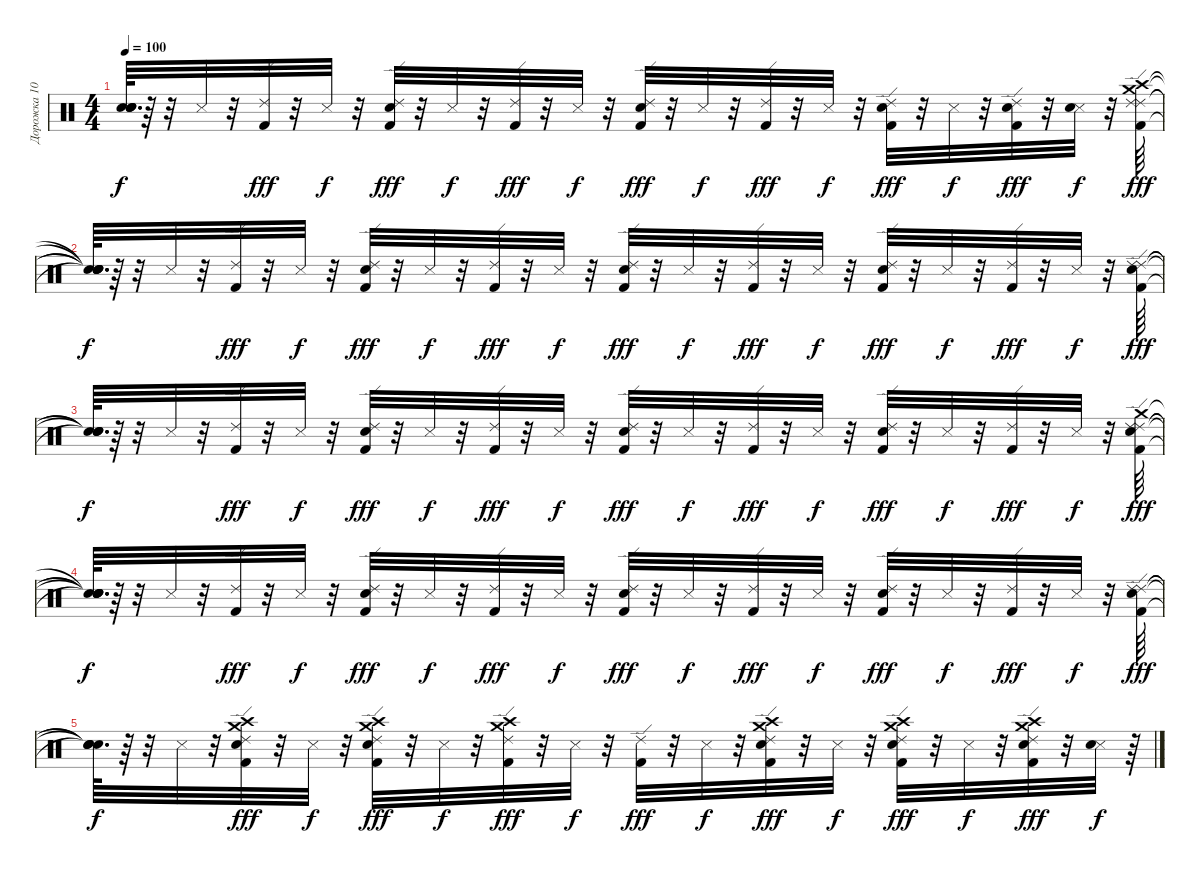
\track ("Дорожка 10" "Дорожка 10") {instrument percussion}
\staff {score}
\articulation defaults
\ts (4 4)
\tempo 100
\clef neutral
\ks c
("Snare (hit)"{t} "Snare (hit)"{t} "Snare (hit)"{t} "Snare (hit)"{t}).64{d dy f} r.64 r.32 "Metronome (hit)".32 r.32 ("Kick (hit) 2" "Ride (edge) 2").32{dy fff} r.32 "Metronome (hit)".32{dy f} r.32 ("Kick (hit) 2" "Snare (hit) 2" "Ride (edge) 2").32{dy fff} r.32 "Metronome (hit)".32{dy f} r.32 ("Kick (hit) 2" "Ride (edge) 2").32{dy fff} r.32 "Metronome (hit)".32{dy f} r.32 ("Kick (hit) 2" "Snare (hit) 2" "Ride (edge) 2").32{dy fff} r.32 "Metronome (hit)".32{dy f} r.32 ("Kick (hit) 2" "Ride (edge) 2").32{dy fff} r.32 "Metronome (hit)".32{dy f} r.32 ("Kick (hit) 2" "Snare (hit) 2" "Ride (edge) 2").32{dy fff} r.32 "Metronome (hit)".32{dy f} r.32 ("Kick (hit) 2" "Snare (hit) 2" "Ride (edge) 2").32{dy fff} r.32 ("Metronome (hit)" "Snare (hit) 2").32{dy f} r.32 ("Ride (edge) 2" "Crash high (hit)" "Crash medium (hit)" "Kick (hit) 2" "Ride (edge) 2").64{dy fff} |
("Snare (hit)"{t} "Snare (hit)"{t} "Snare (hit)"{t} "Snare (hit)"{t} "Snare (hit)"{t}).64{d dy f} r.64 r.32 "Metronome (hit)".32 r.32 ("Kick (hit) 2" "Ride (edge) 2").32{dy fff} r.32 "Metronome (hit)".32{dy f} r.32 ("Snare (hit) 2" "Kick (hit) 2" "Ride (edge) 2").32{dy fff} r.32 "Metronome (hit)".32{dy f} r.32 ("Kick (hit) 2" "Ride (edge) 2").32{dy fff} r.32 "Metronome (hit)".32{dy f} r.32 ("Snare (hit) 2" "Kick (hit) 2" "Ride (edge) 2").32{dy fff} r.32 "Metronome (hit)".32{dy f} r.32 ("Kick (hit) 2" "Ride (edge) 2").32{dy fff} r.32 "Metronome (hit)".32{dy f} r.32 ("Snare (hit) 2" "Kick (hit) 2" "Ride (edge) 2").32{dy fff} r.32 "Metronome (hit)".32{dy f} r.32 ("Kick (hit) 2" "Ride (edge) 2").32{dy fff} r.32 "Metronome (hit)".32{dy f} r.32 ("Ride (edge) 2" "Snare (hit) 2" "Kick (hit) 2" "Ride (edge) 2").64{dy fff} |
("Snare (hit)"{t} "Snare (hit)"{t} "Snare (hit)"{t} "Snare (hit)"{t}).64{d dy f} r.64 r.32 "Metronome (hit)".32 r.32 ("Kick (hit) 2" "Ride (edge) 2").32{dy fff} r.32 "Metronome (hit)".32{dy f} r.32 ("Snare (hit) 2" "Kick (hit) 2" "Ride (edge) 2").32{dy fff} r.32 "Metronome (hit)".32{dy f} r.32 ("Kick (hit) 2" "Ride (edge) 2").32{dy fff} r.32 "Metronome (hit)".32{dy f} r.32 ("Snare (hit) 2" "Kick (hit) 2" "Ride (edge) 2").32{dy fff} r.32 "Metronome (hit)".32{dy f} r.32 ("Kick (hit) 2" "Ride (edge) 2").32{dy fff} r.32 "Metronome (hit)".32{dy f} r.32 ("Snare (hit) 2" "Kick (hit) 2" "Ride (edge) 2").32{dy fff} r.32 "Metronome (hit)".32{dy f} r.32 ("Kick (hit) 2" "Ride (edge) 2").32{dy fff} r.32 "Metronome (hit)".32{dy f} r.32 ("Ride (edge) 2" "Snare (hit) 2" "Crash medium (hit)" "Kick (hit) 2" "Ride (edge) 2").64{dy fff} |
("Snare (hit)"{t} "Snare (hit)"{t} "Snare (hit)"{t} "Snare (hit)"{t} "Snare (hit)"{t}).64{d dy f} r.64 r.32 "Metronome (hit)".32 r.32 ("Kick (hit) 2" "Ride (edge) 2").32{dy fff} r.32 "Metronome (hit)".32{dy f} r.32 ("Snare (hit) 2" "Kick (hit) 2" "Ride (edge) 2").32{dy fff} r.32 "Metronome (hit)".32{dy f} r.32 ("Kick (hit) 2" "Ride (edge) 2").32{dy fff} r.32 "Metronome (hit)".32{dy f} r.32 ("Snare (hit) 2" "Kick (hit) 2" "Ride (edge) 2").32{dy fff} r.32 "Metronome (hit)".32{dy f} r.32 ("Kick (hit) 2" "Ride (edge) 2").32{dy fff} r.32 "Metronome (hit)".32{dy f} r.32 ("Snare (hit) 2" "Kick (hit) 2" "Ride (edge) 2").32{dy fff} r.32 "Metronome (hit)".32{dy f} r.32 ("Kick (hit) 2" "Ride (edge) 2").32{dy fff} r.32 "Metronome (hit)".32{dy f} r.32 ("Ride (edge) 2" "Snare (hit) 2" "Kick (hit) 2" "Ride (edge) 2").64{dy fff} |
("Snare (hit)"{t} "Snare (hit)"{t} "Snare (hit)"{t} "Snare (hit)"{t}).64{d dy f} r.64 r.32 "Metronome (hit)".32 r.32 ("Kick (hit) 2" "Crash medium (hit)" "Crash high (hit)" "Snare (hit) 2" "Ride (edge) 2").32{dy fff} r.32 "Metronome (hit)".32{dy f} r.32 ("Kick (hit) 2" "Crash high (hit)" "Crash medium (hit)" "Snare (hit) 2" "Ride (edge) 2").32{dy fff} r.32 "Metronome (hit)".32{dy f} r.32 ("Kick (hit) 2" "Crash medium (hit)" "Crash high (hit)" "Ride (edge) 2").32{dy fff} r.32 "Metronome (hit)".32{dy f} r.32 ("Kick (hit) 2" "Ride (edge) 2").32{dy fff} r.32 "Metronome (hit)".32{dy f} r.32 ("Kick (hit) 2" "Crash medium (hit)" "Crash high (hit)" "Snare (hit) 2" "Ride (edge) 2").32{dy fff} r.32 "Metronome (hit)".32{dy f} r.32 ("Kick (hit) 2" "Crash medium (hit)" "Crash high (hit)" "Snare (hit) 2" "Ride (edge) 2").32{dy fff} r.32 "Metronome (hit)".32{dy f} r.32 ("Kick (hit) 2" "Snare (hit) 2" "Crash medium (hit)" "Crash high (hit)" "Ride (edge) 2").32{dy fff} r.32 ("Metronome (hit)" "Snare (hit) 2").32{dy f} r.64
